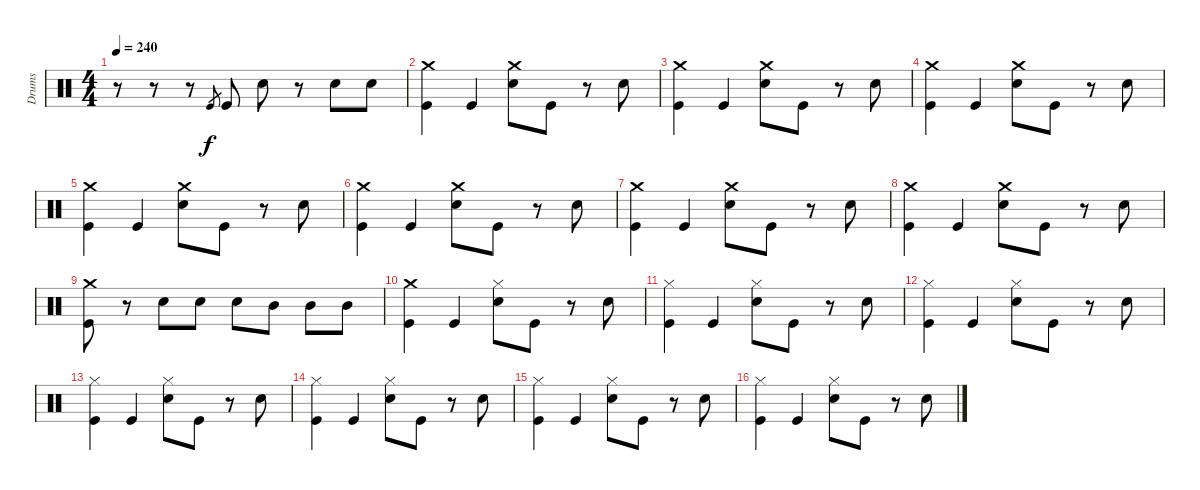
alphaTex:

\track ("Drums" "Drums") {instrument percussion}
\staff {score}
\articulation defaults
\ts (4 4)
\tempo 240
\clef neutral
\ks c
r.8{dy f} r.8 r.8 "Kick (hit)".8{gr} "Kick (hit)".8 "Snare (hit) 2".8 r.8 "Snare (hit) 2".8 "Snare (hit) 2".8 |
("Crash medium (hit)" "Kick (hit)").4 "Kick (hit)".4 ("Crash medium (hit)" "Snare (hit) 2").8 "Kick (hit)".8 r.8 "Snare (hit) 2".8 |
("Crash medium (hit)" "Kick (hit)").4 "Kick (hit)".4 ("Crash medium (hit)" "Snare (hit) 2").8 "Kick (hit)".8 r.8 "Snare (hit) 2".8 |
("Crash medium (hit)" "Kick (hit)").4 "Kick (hit)".4 ("Crash medium (hit)" "Snare (hit) 2").8 "Kick (hit)".8 r.8 "Snare (hit) 2".8 |
("Crash medium (hit)" "Kick (hit)").4 "Kick (hit)".4 ("Crash medium (hit)" "Snare (hit) 2").8 "Kick (hit)".8 r.8 "Snare (hit) 2".8 |
("Crash medium (hit)" "Kick (hit)").4 "Kick (hit)".4 ("Crash medium (hit)" "Snare (hit) 2").8 "Kick (hit)".8 r.8 "Snare (hit) 2".8 |
("Crash medium (hit)" "Kick (hit)").4 "Kick (hit)".4 ("Crash medium (hit)" "Snare (hit) 2").8 "Kick (hit)".8 r.8 "Snare (hit) 2".8 |
("Crash medium (hit)" "Kick (hit)").4 "Kick (hit)".4 ("Crash medium (hit)" "Snare (hit) 2").8 "Kick (hit)".8 r.8 "Snare (hit) 2".8 |
("Crash medium (hit)" "Kick (hit)").8 r.8 "Snare (hit) 2".8 "Snare (hit) 2".8 "Snare (hit) 2".8 "Mid Tom (hit)".8 "Mid Tom (hit)".8 "Mid Tom (hit)".8 |
("Crash medium (hit)" "Kick (hit)").4 "Kick (hit)".4 ("Hi-Hat (closed)" "Snare (hit) 2").8 "Kick (hit)".8 r.8 "Snare (hit) 2".8 |
("Hi-Hat (closed)" "Kick (hit)").4 "Kick (hit)".4 ("Hi-Hat (closed)" "Snare (hit) 2").8 "Kick (hit)".8 r.8 "Snare (hit) 2".8 |
("Hi-Hat (closed)" "Kick (hit)").4 "Kick (hit)".4 ("Hi-Hat (closed)" "Snare (hit) 2").8 "Kick (hit)".8 r.8 "Snare (hit) 2".8 |
("Hi-Hat (closed)" "Kick (hit)").4 "Kick (hit)".4 ("Hi-Hat (closed)" "Snare (hit) 2").8 "Kick (hit)".8 r.8 "Snare (hit) 2".8 |
("Hi-Hat (closed)" "Kick (hit)").4 "Kick (hit)".4 ("Hi-Hat (closed)" "Snare (hit) 2").8 "Kick (hit)".8 r.8 "Snare (hit) 2".8 |
("Hi-Hat (closed)" "Kick (hit)").4 "Kick (hit)".4 ("Hi-Hat (closed)" "Snare (hit) 2").8 "Kick (hit)".8 r.8 "Snare (hit) 2".8 |
("Hi-Hat (closed)" "Kick (hit)").4 "Kick (hit)".4 ("Hi-Hat (closed)" "Snare (hit) 2").8 "Kick (hit)".8 r.8 "Snare (hit) 2".8
